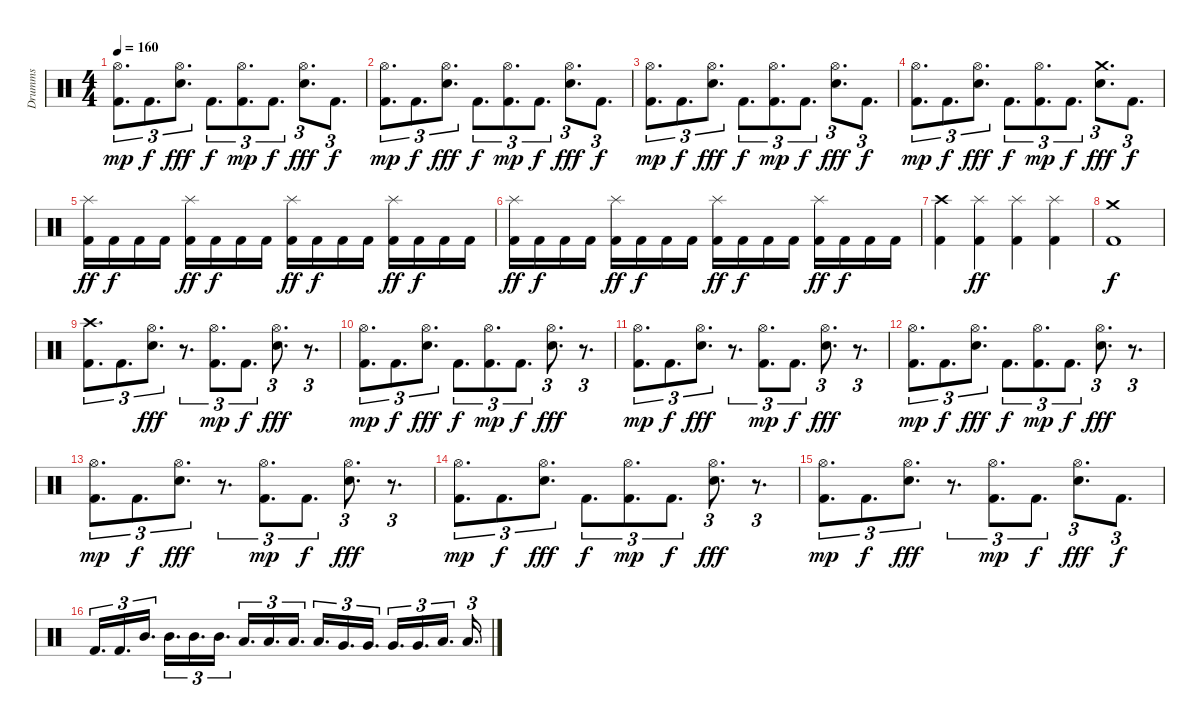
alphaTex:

\track ("Drumms" "Drumms") {instrument percussion}
\staff {score}
\articulation defaults
\ts (4 4)
\tempo 160
\clef neutral
\ks c
("Hi-Hat (open)" "Kick (hit) 2").8{d tu (3 2) dy mp} "Kick (hit) 2".8{d tu (3 2) dy f} ("Hi-Hat (open)" "Electric Snare (hit)").8{d tu (3 2) dy fff} "Kick (hit) 2".8{d tu (3 2) dy f} ("Hi-Hat (open)" "Kick (hit) 2").8{d tu (3 2) dy mp} "Kick (hit) 2".8{d tu (3 2) dy f} ("Hi-Hat (open)" "Electric Snare (hit)").8{d tu (3 2) dy fff} "Kick (hit) 2".8{d tu (3 2) dy f} |
("Hi-Hat (open)" "Kick (hit) 2").8{d tu (3 2) dy mp} "Kick (hit) 2".8{d tu (3 2) dy f} ("Hi-Hat (open)" "Electric Snare (hit)").8{d tu (3 2) dy fff} "Kick (hit) 2".8{d tu (3 2) dy f} ("Hi-Hat (open)" "Kick (hit) 2").8{d tu (3 2) dy mp} "Kick (hit) 2".8{d tu (3 2) dy f} ("Hi-Hat (open)" "Electric Snare (hit)").8{d tu (3 2) dy fff} "Kick (hit) 2".8{d tu (3 2) dy f} |
("Hi-Hat (open)" "Kick (hit) 2").8{d tu (3 2) dy mp} "Kick (hit) 2".8{d tu (3 2) dy f} ("Hi-Hat (open)" "Electric Snare (hit)").8{d tu (3 2) dy fff} "Kick (hit) 2".8{d tu (3 2) dy f} ("Hi-Hat (open)" "Kick (hit) 2").8{d tu (3 2) dy mp} "Kick (hit) 2".8{d tu (3 2) dy f} ("Hi-Hat (open)" "Electric Snare (hit)").8{d tu (3 2) dy fff} "Kick (hit) 2".8{d tu (3 2) dy f} |
("Hi-Hat (open)" "Kick (hit) 2").8{d tu (3 2) dy mp} "Kick (hit) 2".8{d tu (3 2) dy f} ("Hi-Hat (open)" "Electric Snare (hit)").8{d tu (3 2) dy fff} "Kick (hit) 2".8{d tu (3 2) dy f} ("Hi-Hat (open)" "Kick (hit) 2").8{d tu (3 2) dy mp} "Kick (hit) 2".8{d tu (3 2) dy f} ("Crash medium (hit)" "Electric Snare (hit)").8{d tu (3 2) dy fff} "Kick (hit) 2".8{d tu (3 2) dy f} |
\section ("" "")
("Splash (hit)" "Kick (hit) 2").16{dy ff} "Kick (hit) 2".16{dy f} "Kick (hit) 2".16 "Kick (hit) 2".16 ("Splash (hit)" "Kick (hit) 2").16{dy ff} "Kick (hit) 2".16{dy f} "Kick (hit) 2".16 "Kick (hit) 2".16 ("Splash (hit)" "Kick (hit) 2").16{dy ff} "Kick (hit) 2".16{dy f} "Kick (hit) 2".16 "Kick (hit) 2".16 ("Splash (hit)" "Kick (hit) 2").16{dy ff} "Kick (hit) 2".16{dy f} "Kick (hit) 2".16 "Kick (hit) 2".16 |
("Splash (hit)" "Kick (hit) 2").16{dy ff} "Kick (hit) 2".16{dy f} "Kick (hit) 2".16 "Kick (hit) 2".16 ("Splash (hit)" "Kick (hit) 2").16{dy ff} "Kick (hit) 2".16{dy f} "Kick (hit) 2".16 "Kick (hit) 2".16 ("Splash (hit)" "Kick (hit) 2").16{dy ff} "Kick (hit) 2".16{dy f} "Kick (hit) 2".16 "Kick (hit) 2".16 ("Splash (hit)" "Kick (hit) 2").16{dy ff} "Kick (hit) 2".16{dy f} "Kick (hit) 2".16 "Kick (hit) 2".16 |
("Crash high (hit)" "Kick (hit) 2").4 ("Splash (hit)" "Kick (hit) 2").4{dy ff} ("Splash (hit)" "Kick (hit) 2").4 ("Splash (hit)" "Kick (hit) 2").4 |
("Crash medium (hit)" "Kick (hit) 2").1{dy f} |
\section ("" "")
("Crash high (hit)" "Kick (hit) 2").8{d tu (3 2)} "Kick (hit) 2".8{d tu (3 2)} ("Hi-Hat (open)" "Electric Snare (hit)").8{d tu (3 2) dy fff} r.8{d tu (3 2)} ("Hi-Hat (open)" "Kick (hit) 2").8{d tu (3 2) dy mp} "Kick (hit) 2".8{d tu (3 2) dy f} ("Hi-Hat (open)" "Electric Snare (hit)").8{d tu (3 2) dy fff} r.8{d tu (3 2)} |
("Hi-Hat (open)" "Kick (hit) 2").8{d tu (3 2) dy mp} "Kick (hit) 2".8{d tu (3 2) dy f} ("Hi-Hat (open)" "Electric Snare (hit)").8{d tu (3 2) dy fff} "Kick (hit) 2".8{d tu (3 2) dy f} ("Hi-Hat (open)" "Kick (hit) 2").8{d tu (3 2) dy mp} "Kick (hit) 2".8{d tu (3 2) dy f} ("Hi-Hat (open)" "Electric Snare (hit)").8{d tu (3 2) dy fff} r.8{d tu (3 2)} |
("Hi-Hat (open)" "Kick (hit) 2").8{d tu (3 2) dy mp} "Kick (hit) 2".8{d tu (3 2) dy f} ("Hi-Hat (open)" "Electric Snare (hit)").8{d tu (3 2) dy fff} r.8{d tu (3 2)} ("Hi-Hat (open)" "Kick (hit) 2").8{d tu (3 2) dy mp} "Kick (hit) 2".8{d tu (3 2) dy f} ("Hi-Hat (open)" "Electric Snare (hit)").8{d tu (3 2) dy fff} r.8{d tu (3 2)} |
("Hi-Hat (open)" "Kick (hit) 2").8{d tu (3 2) dy mp} "Kick (hit) 2".8{d tu (3 2) dy f} ("Hi-Hat (open)" "Electric Snare (hit)").8{d tu (3 2) dy fff} "Kick (hit) 2".8{d tu (3 2) dy f} ("Hi-Hat (open)" "Kick (hit) 2").8{d tu (3 2) dy mp} "Kick (hit) 2".8{d tu (3 2) dy f} ("Hi-Hat (open)" "Electric Snare (hit)").8{d tu (3 2) dy fff} r.8{d tu (3 2)} |
("Hi-Hat (open)" "Kick (hit) 2").8{d tu (3 2) dy mp} "Kick (hit) 2".8{d tu (3 2) dy f} ("Hi-Hat (open)" "Electric Snare (hit)").8{d tu (3 2) dy fff} r.8{d tu (3 2)} ("Hi-Hat (open)" "Kick (hit) 2").8{d tu (3 2) dy mp} "Kick (hit) 2".8{d tu (3 2) dy f} ("Hi-Hat (open)" "Electric Snare (hit)").8{d tu (3 2) dy fff} r.8{d tu (3 2)} |
("Hi-Hat (open)" "Kick (hit) 2").8{d tu (3 2) dy mp} "Kick (hit) 2".8{d tu (3 2) dy f} ("Hi-Hat (open)" "Electric Snare (hit)").8{d tu (3 2) dy fff} "Kick (hit) 2".8{d tu (3 2) dy f} ("Hi-Hat (open)" "Kick (hit) 2").8{d tu (3 2) dy mp} "Kick (hit) 2".8{d tu (3 2) dy f} ("Hi-Hat (open)" "Electric Snare (hit)").8{d tu (3 2) dy fff} r.8{d tu (3 2)} |
("Hi-Hat (open)" "Kick (hit) 2").8{d tu (3 2) dy mp} "Kick (hit) 2".8{d tu (3 2) dy f} ("Hi-Hat (open)" "Electric Snare (hit)").8{d tu (3 2) dy fff} r.8{d tu (3 2)} ("Hi-Hat (open)" "Kick (hit) 2").8{d tu (3 2) dy mp} "Kick (hit) 2".8{d tu (3 2) dy f} ("Hi-Hat (open)" "Electric Snare (hit)").8{d tu (3 2) dy fff} "Kick (hit) 2".8{d tu (3 2) dy f} |
"Kick (hit) 2".16{d tu (3 2)} "Kick (hit) 2".16{d tu (3 2)} "Mid Tom (hit)".16{d tu (3 2)} "Mid Tom (hit)".16{d tu (3 2)} "Mid Tom (hit)".16{d tu (3 2)} "Mid Tom (hit)".16{d tu (3 2)} "Low Tom (hit)".16{d tu (3 2)} "Low Tom (hit)".16{d tu (3 2)} "Low Tom (hit)".16{d tu (3 2)} "Low Tom (hit)".16{d tu (3 2)} "Very Low Tom (hit)".16{d tu (3 2)} "Very Low Tom (hit)".16{d tu (3 2)} "Very Low Tom (hit)".16{d tu (3 2)} "Very Low Tom (hit)".16{d tu (3 2)} "Low Floor Tom (hit)".16{d tu (3 2)} "Low Floor Tom (hit)".16{d tu (3 2)}
